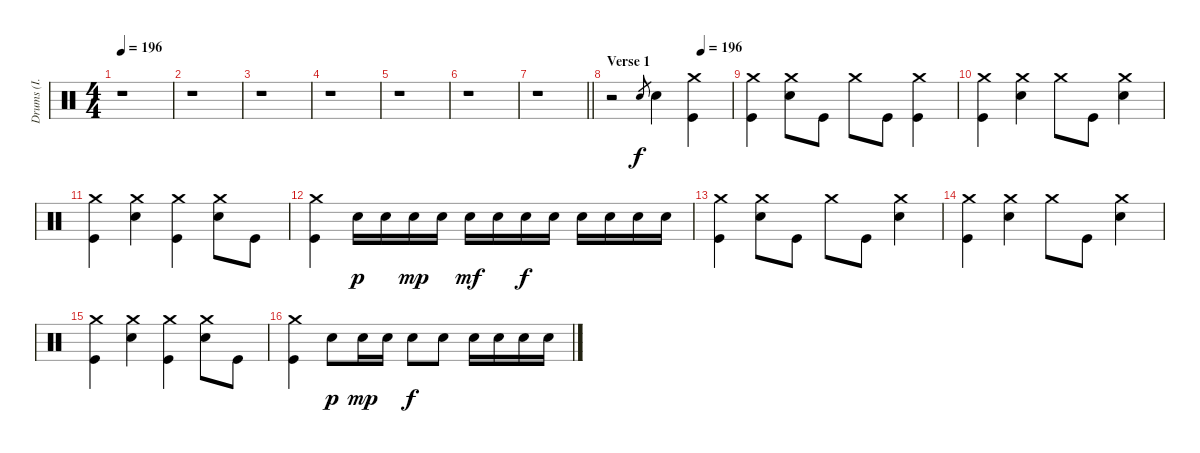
\track ("Drums (I. Paice)" "Drums (I. ") {instrument percussion}
\staff {score}
\articulation defaults
\ts (4 4)
\tempo 196
\clef neutral
\ks c
r.1{dy f} |
r.1 |
r.1 |
r.1 |
r.1 |
r.1 |
\barLineRight lightlight
r.1 |
\section ("" "Verse 1")
\tempo (196 0.75)
r.2 "Electric Snare (hit)".8{gr} "Electric Snare (hit)".4 ("Crash medium (hit)" "Kick (hit)").4 |
("Crash medium (hit)" "Kick (hit)").4 ("Crash medium (hit)" "Electric Snare (hit)").8 "Kick (hit)".8 "Crash medium (hit)".8 "Kick (hit)".8 ("Crash medium (hit)" "Kick (hit)").4 |
("Crash medium (hit)" "Kick (hit)").4 ("Crash medium (hit)" "Electric Snare (hit)").4 "Crash medium (hit)".8 "Kick (hit)".8 ("Crash medium (hit)" "Electric Snare (hit)").4 |
("Crash medium (hit)" "Kick (hit)").4 ("Crash medium (hit)" "Electric Snare (hit)").4 ("Crash medium (hit)" "Kick (hit)").4 ("Crash medium (hit)" "Electric Snare (hit)").8 "Kick (hit)".8 |
("Crash medium (hit)" "Kick (hit)").4 "Electric Snare (hit)".16{dy p} "Electric Snare (hit)".16 "Electric Snare (hit)".16{dy mp} "Electric Snare (hit)".16 "Electric Snare (hit)".16{dy mf} "Electric Snare (hit)".16 "Electric Snare (hit)".16{dy f} "Electric Snare (hit)".16 "Electric Snare (hit)".16 "Electric Snare (hit)".16 "Electric Snare (hit)".16 "Electric Snare (hit)".16 |
("Crash medium (hit)" "Kick (hit)").4 ("Crash medium (hit)" "Electric Snare (hit)").8 "Kick (hit)".8 "Crash medium (hit)".8 "Kick (hit)".8 ("Crash medium (hit)" "Electric Snare (hit)").4 |
("Crash medium (hit)" "Kick (hit)").4 ("Crash medium (hit)" "Electric Snare (hit)").4 "Crash medium (hit)".8 "Kick (hit)".8 ("Crash medium (hit)" "Electric Snare (hit)").4 |
("Crash medium (hit)" "Kick (hit)").4 ("Crash medium (hit)" "Electric Snare (hit)").4 ("Crash medium (hit)" "Kick (hit)").4 ("Crash medium (hit)" "Electric Snare (hit)").8 "Kick (hit)".8 |
("Crash medium (hit)" "Kick (hit)").4 "Electric Snare (hit)".8{dy p} "Electric Snare (hit)".16{dy mp} "Electric Snare (hit)".16 "Electric Snare (hit)".8{dy f} "Electric Snare (hit)".8 "Electric Snare (hit)".16 "Electric Snare (hit)".16 "Electric Snare (hit)".16 "Electric Snare (hit)".16
